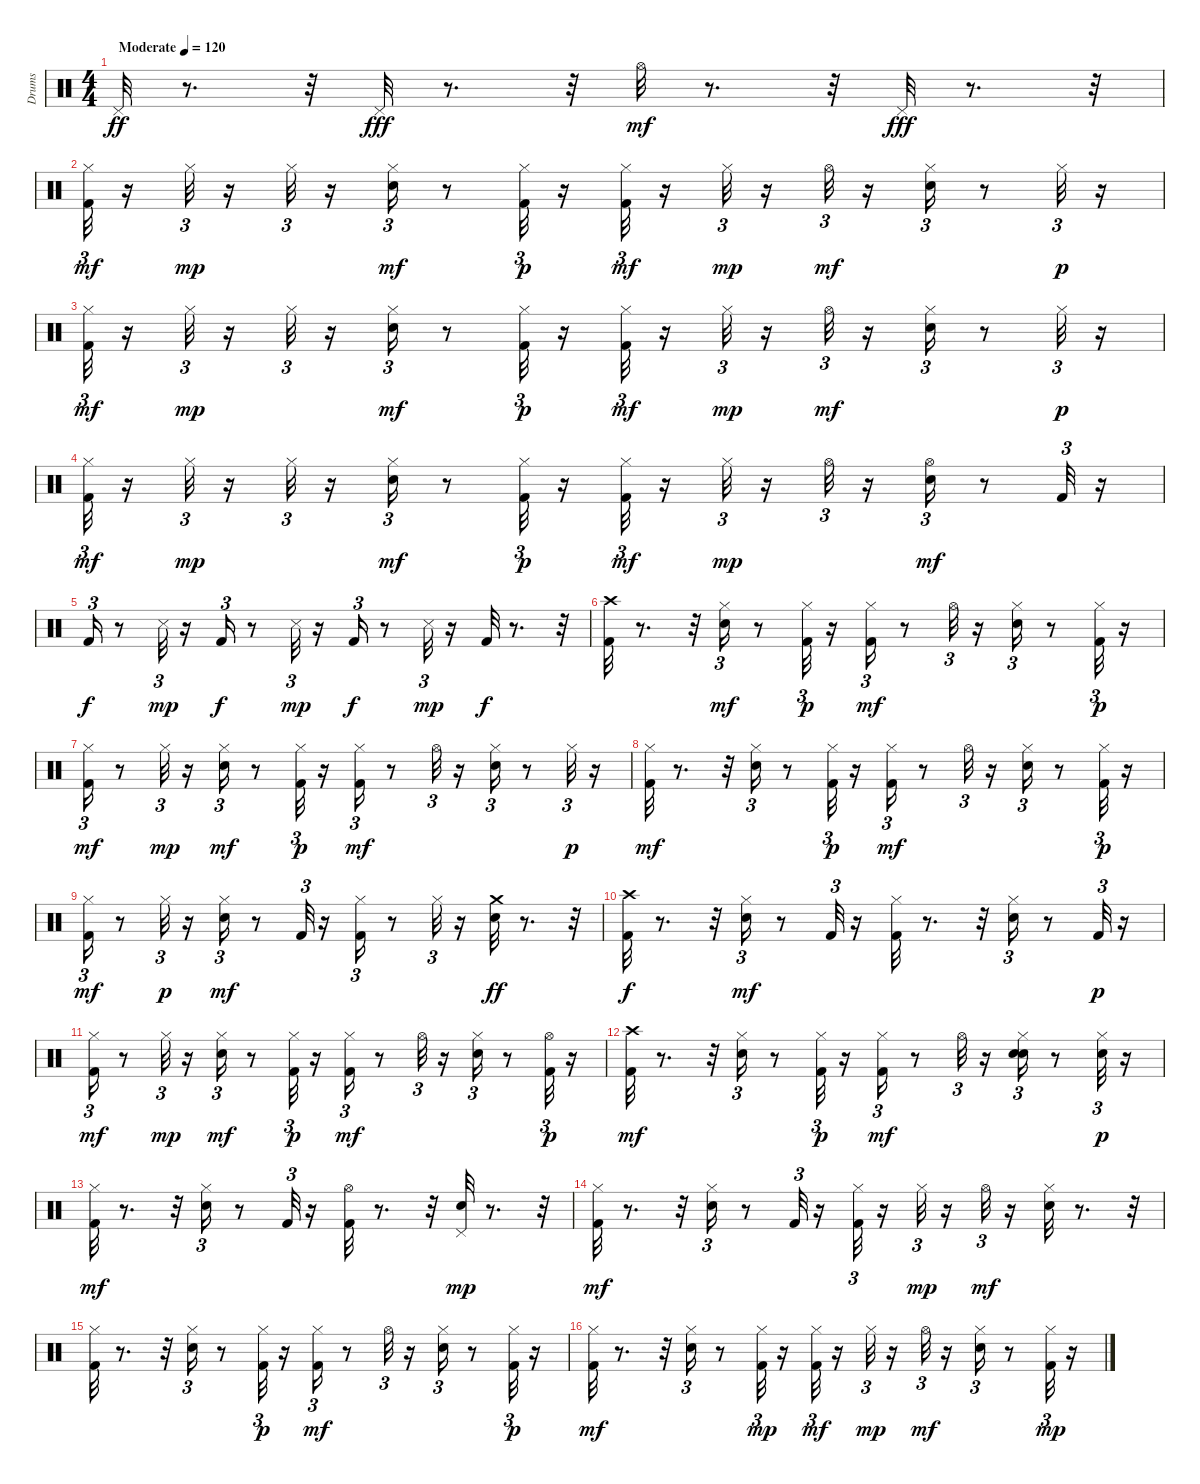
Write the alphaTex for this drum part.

\track ("Drums" "Drums") {instrument percussion}
\staff {score}
\articulation defaults
\ts (4 4)
\tempo (120 "Moderate")
\clef neutral
\ks c "Pedal Hi-Hat (hit)".32{dy ff}
r.8{d} r.32 "Pedal Hi-Hat (hit)".32{dy fff} r.8{d} r.32 "Hi-Hat (open)".32{dy mf} r.8{d} r.32 "Pedal Hi-Hat (hit)".32{dy fff} r.8{d} r.32 |
("Kick (hit) 2" "Hi-Hat (closed)").32{tu (3 2) dy mf} r.16 "Hi-Hat (closed)".32{tu (3 2) dy mp} r.16 "Hi-Hat (closed)".32{tu (3 2)} r.16 ("Electric Snare (hit)" "Hi-Hat (closed)").16{tu (3 2) dy mf} r.8 ("Kick (hit) 2" "Hi-Hat (closed)").32{tu (3 2) dy p} r.16 ("Kick (hit) 2" "Hi-Hat (closed)").32{tu (3 2) dy mf} r.16 "Hi-Hat (closed)".32{tu (3 2) dy mp} r.16 "Hi-Hat (open)".32{tu (3 2) dy mf} r.16 ("Electric Snare (hit)" "Hi-Hat (closed)").16{tu (3 2)} r.8 "Hi-Hat (closed)".32{tu (3 2) dy p} r.16 |
("Kick (hit) 2" "Hi-Hat (closed)").32{tu (3 2) dy mf} r.16 "Hi-Hat (closed)".32{tu (3 2) dy mp} r.16 "Hi-Hat (closed)".32{tu (3 2)} r.16 ("Electric Snare (hit)" "Hi-Hat (closed)").16{tu (3 2) dy mf} r.8 ("Kick (hit) 2" "Hi-Hat (closed)").32{tu (3 2) dy p} r.16 ("Kick (hit) 2" "Hi-Hat (closed)").32{tu (3 2) dy mf} r.16 "Hi-Hat (closed)".32{tu (3 2) dy mp} r.16 "Hi-Hat (open)".32{tu (3 2) dy mf} r.16 ("Electric Snare (hit)" "Hi-Hat (closed)").16{tu (3 2)} r.8 "Hi-Hat (closed)".32{tu (3 2) dy p} r.16 |
("Kick (hit) 2" "Hi-Hat (closed)").32{tu (3 2) dy mf} r.16 "Hi-Hat (closed)".32{tu (3 2) dy mp} r.16 "Hi-Hat (closed)".32{tu (3 2)} r.16 ("Electric Snare (hit)" "Hi-Hat (closed)").16{tu (3 2) dy mf} r.8 ("Kick (hit) 2" "Hi-Hat (closed)").32{tu (3 2) dy p} r.16 ("Kick (hit) 2" "Hi-Hat (closed)").32{tu (3 2) dy mf} r.16 "Hi-Hat (closed)".32{tu (3 2) dy mp} r.16 "Hi-Hat (open)".32{tu (3 2)} r.16 ("Electric Snare (hit)" "Hi-Hat (open)").16{tu (3 2) dy mf} r.8 "Kick (hit) 2".32{tu (3 2)} r.16 |
"Kick (hit) 2".16{tu (3 2) dy f} r.8 "Snare (side stick) 3".32{tu (3 2) dy mp} r.16 "Kick (hit) 2".16{tu (3 2) dy f} r.8 "Snare (side stick) 3".32{tu (3 2) dy mp} r.16 "Kick (hit) 2".16{tu (3 2) dy f} r.8 "Snare (side stick) 3".32{tu (3 2) dy mp} r.16 "Kick (hit) 2".32{dy f} r.8{d} r.32 |
("Kick (hit) 2" "Crash high (hit)").32 r.8{d} r.32 ("Electric Snare (hit)" "Hi-Hat (closed)").16{tu (3 2) dy mf} r.8 ("Kick (hit) 2" "Hi-Hat (closed)").32{tu (3 2) dy p} r.16 ("Kick (hit) 2" "Hi-Hat (closed)").16{tu (3 2) dy mf} r.8 "Hi-Hat (open)".32{tu (3 2)} r.16 ("Electric Snare (hit)" "Hi-Hat (closed)").16{tu (3 2)} r.8 ("Kick (hit) 2" "Hi-Hat (closed)").32{tu (3 2) dy p} r.16 |
("Kick (hit) 2" "Hi-Hat (closed)").16{tu (3 2) dy mf} r.8 "Hi-Hat (closed)".32{tu (3 2) dy mp} r.16 ("Electric Snare (hit)" "Hi-Hat (closed)").16{tu (3 2) dy mf} r.8 ("Kick (hit) 2" "Hi-Hat (closed)").32{tu (3 2) dy p} r.16 ("Kick (hit) 2" "Hi-Hat (closed)").16{tu (3 2) dy mf} r.8 "Hi-Hat (open)".32{tu (3 2)} r.16 ("Electric Snare (hit)" "Hi-Hat (closed)").16{tu (3 2)} r.8 "Hi-Hat (closed)".32{tu (3 2) dy p} r.16 |
("Kick (hit) 2" "Hi-Hat (closed)").32{dy mf} r.8{d} r.32 ("Electric Snare (hit)" "Hi-Hat (closed)").16{tu (3 2)} r.8 ("Kick (hit) 2" "Hi-Hat (closed)").32{tu (3 2) dy p} r.16 ("Kick (hit) 2" "Hi-Hat (closed)").16{tu (3 2) dy mf} r.8 "Hi-Hat (open)".32{tu (3 2)} r.16 ("Electric Snare (hit)" "Hi-Hat (closed)").16{tu (3 2)} r.8 ("Kick (hit) 2" "Hi-Hat (closed)").32{tu (3 2) dy p} r.16 |
("Kick (hit) 2" "Hi-Hat (closed)").16{tu (3 2) dy mf} r.8 "Hi-Hat (closed)".32{tu (3 2) dy p} r.16 ("Electric Snare (hit)" "Hi-Hat (closed)").16{tu (3 2) dy mf} r.8 "Kick (hit) 2".32{tu (3 2)} r.16 ("Kick (hit) 2" "Hi-Hat (closed)").16{tu (3 2)} r.8 "Hi-Hat (closed)".32{tu (3 2)} r.16 ("Electric Snare (hit)" "Crash medium (hit)").32{dy ff} r.8{d} r.32 |
("Kick (hit) 2" "Crash high (hit)").32{dy f} r.8{d} r.32 ("Electric Snare (hit)" "Hi-Hat (closed)").16{tu (3 2) dy mf} r.8 "Kick (hit) 2".32{tu (3 2)} r.16 ("Kick (hit) 2" "Hi-Hat (closed)").32 r.8{d} r.32 ("Electric Snare (hit)" "Hi-Hat (closed)").16{tu (3 2)} r.8 "Kick (hit) 2".32{tu (3 2) dy p} r.16 |
("Kick (hit) 2" "Hi-Hat (closed)").16{tu (3 2) dy mf} r.8 "Hi-Hat (closed)".32{tu (3 2) dy mp} r.16 ("Electric Snare (hit)" "Hi-Hat (closed)").16{tu (3 2) dy mf} r.8 ("Kick (hit) 2" "Hi-Hat (closed)").32{tu (3 2) dy p} r.16 ("Kick (hit) 2" "Hi-Hat (closed)").16{tu (3 2) dy mf} r.8 "Hi-Hat (open)".32{tu (3 2)} r.16 ("Electric Snare (hit)" "Hi-Hat (closed)").16{tu (3 2)} r.8 ("Kick (hit) 2" "Hi-Hat (open)").32{tu (3 2) dy p} r.16 |
("Kick (hit) 2" "Crash high (hit)").32{dy mf} r.8{d} r.32 ("Electric Snare (hit)" "Hi-Hat (closed)").16{tu (3 2)} r.8 ("Kick (hit) 2" "Hi-Hat (closed)").32{tu (3 2) dy p} r.16 ("Kick (hit) 2" "Hi-Hat (closed)").16{tu (3 2) dy mf} r.8 "Hi-Hat (open)".32{tu (3 2)} r.16 ("Hand Clap (hit)" "Electric Snare (hit)" "Hi-Hat (closed)").16{tu (3 2)} r.8 ("Hand Clap (hit)" "Hi-Hat (closed)").32{tu (3 2) dy p} r.16 |
("Kick (hit) 2" "Hi-Hat (closed)").32{dy mf} r.8{d} r.32 ("Electric Snare (hit)" "Hi-Hat (closed)").16{tu (3 2)} r.8 "Kick (hit) 2".32{tu (3 2)} r.16 ("Kick (hit) 2" "Hi-Hat (open)").32 r.8{d} r.32 ("Electric Snare (hit)" "Pedal Hi-Hat (hit)").32{dy mp} r.8{d} r.32 |
("Kick (hit) 2" "Hi-Hat (closed)").32{dy mf} r.8{d} r.32 ("Electric Snare (hit)" "Hi-Hat (closed)").16{tu (3 2)} r.8 "Kick (hit) 2".32{tu (3 2)} r.16 ("Kick (hit) 2" "Hi-Hat (closed)").32{tu (3 2)} r.16 "Hi-Hat (closed)".32{tu (3 2) dy mp} r.16 "Hi-Hat (open)".32{tu (3 2) dy mf} r.16 ("Electric Snare (hit)" "Hi-Hat (closed)").32 r.8{d} r.32 |
("Kick (hit) 2" "Hi-Hat (closed)").32 r.8{d} r.32 ("Electric Snare (hit)" "Hi-Hat (closed)").16{tu (3 2)} r.8 ("Kick (hit) 2" "Hi-Hat (closed)").32{tu (3 2) dy p} r.16 ("Kick (hit) 2" "Hi-Hat (closed)").16{tu (3 2) dy mf} r.8 "Hi-Hat (open)".32{tu (3 2)} r.16 ("Electric Snare (hit)" "Hi-Hat (closed)").16{tu (3 2)} r.8 ("Kick (hit) 2" "Hi-Hat (closed)").32{tu (3 2) dy p} r.16 |
("Kick (hit) 2" "Hi-Hat (closed)").32{dy mf} r.8{d} r.32 ("Electric Snare (hit)" "Hi-Hat (closed)").16{tu (3 2)} r.8 ("Kick (hit) 2" "Hi-Hat (closed)").32{tu (3 2) dy mp} r.16 ("Kick (hit) 2" "Hi-Hat (closed)").32{tu (3 2) dy mf} r.16 "Hi-Hat (closed)".32{tu (3 2) dy mp} r.16 "Hi-Hat (open)".32{tu (3 2) dy mf} r.16 ("Electric Snare (hit)" "Hi-Hat (closed)").16{tu (3 2)} r.8 ("Kick (hit) 2" "Hi-Hat (closed)").32{tu (3 2) dy mp} r.16
